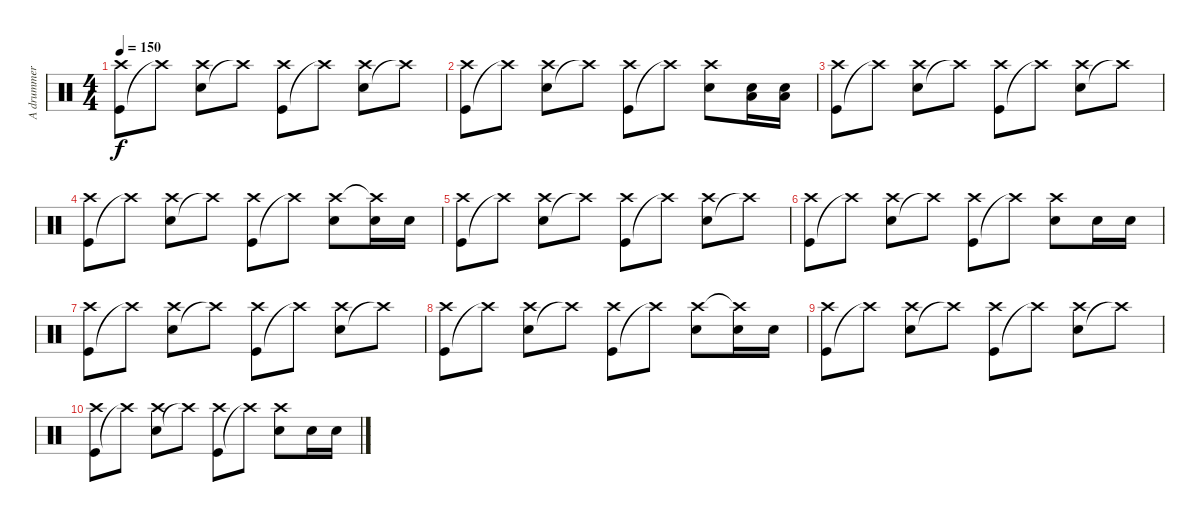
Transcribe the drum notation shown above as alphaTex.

\track ("A drummer I guess..? " "A drummer ") {instrument percussion}
\staff {score}
\articulation defaults
\ts (4 4)
\tempo 150
\clef neutral
\ks c
("Kick (hit)" "Crash high (hit)").8{dy f} "Crash high (hit)"{t}.8 ("Electric Snare (hit)" "Crash high (hit)").8 "Crash high (hit)"{t}.8 ("Kick (hit)" "Crash high (hit)").8 "Crash high (hit)"{t}.8 ("Electric Snare (hit)" "Crash high (hit)").8 "Crash high (hit)"{t}.8 |
("Kick (hit)" "Crash high (hit)").8 "Crash high (hit)"{t}.8 ("Electric Snare (hit)" "Crash high (hit)").8 "Crash high (hit)"{t}.8 ("Kick (hit)" "Crash high (hit)").8 "Crash high (hit)"{t}.8 ("Electric Snare (hit)" "Crash high (hit)").8 ("Electric Snare (hit)" "Low Floor Tom (hit)").16 ("Electric Snare (hit)" "Low Floor Tom (hit)").16 |
("Kick (hit)" "Crash high (hit)").8 "Crash high (hit)"{t}.8 ("Electric Snare (hit)" "Crash high (hit)").8 "Crash high (hit)"{t}.8 ("Kick (hit)" "Crash high (hit)").8 "Crash high (hit)"{t}.8 ("Electric Snare (hit)" "Crash high (hit)").8 "Crash high (hit)"{t}.8 |
("Kick (hit)" "Crash high (hit)").8 "Crash high (hit)"{t}.8 ("Electric Snare (hit)" "Crash high (hit)").8 "Crash high (hit)"{t}.8 ("Kick (hit)" "Crash high (hit)").8 "Crash high (hit)"{t}.8 ("Electric Snare (hit)" "Crash high (hit)").8 ("Electric Snare (hit)" "Crash high (hit)"{t}).16 "Electric Snare (hit)".16 |
("Kick (hit)" "Crash high (hit)").8 "Crash high (hit)"{t}.8 ("Electric Snare (hit)" "Crash high (hit)").8 "Crash high (hit)"{t}.8 ("Kick (hit)" "Crash high (hit)").8 "Crash high (hit)"{t}.8 ("Electric Snare (hit)" "Crash high (hit)").8 "Crash high (hit)"{t}.8 |
("Kick (hit)" "Crash high (hit)").8 "Crash high (hit)"{t}.8 ("Electric Snare (hit)" "Crash high (hit)").8 "Crash high (hit)"{t}.8 ("Kick (hit)" "Crash high (hit)").8 "Crash high (hit)"{t}.8 ("Electric Snare (hit)" "Crash high (hit)").8 "Electric Snare (hit)".16 "Electric Snare (hit)".16 |
("Kick (hit)" "Crash high (hit)").8 "Crash high (hit)"{t}.8 ("Electric Snare (hit)" "Crash high (hit)").8 "Crash high (hit)"{t}.8 ("Kick (hit)" "Crash high (hit)").8 "Crash high (hit)"{t}.8 ("Electric Snare (hit)" "Crash high (hit)").8 "Crash high (hit)"{t}.8 |
("Kick (hit)" "Crash high (hit)").8 "Crash high (hit)"{t}.8 ("Electric Snare (hit)" "Crash high (hit)").8 "Crash high (hit)"{t}.8 ("Kick (hit)" "Crash high (hit)").8 "Crash high (hit)"{t}.8 ("Electric Snare (hit)" "Crash high (hit)").8 ("Electric Snare (hit)" "Crash high (hit)"{t}).16 "Electric Snare (hit)".16 |
("Kick (hit)" "Crash high (hit)").8 "Crash high (hit)"{t}.8 ("Electric Snare (hit)" "Crash high (hit)").8 "Crash high (hit)"{t}.8 ("Kick (hit)" "Crash high (hit)").8 "Crash high (hit)"{t}.8 ("Electric Snare (hit)" "Crash high (hit)").8 "Crash high (hit)"{t}.8 |
("Kick (hit)" "Crash high (hit)").8 "Crash high (hit)"{t}.8 ("Electric Snare (hit)" "Crash high (hit)").8 "Crash high (hit)"{t}.8 ("Kick (hit)" "Crash high (hit)").8 "Crash high (hit)"{t}.8 ("Electric Snare (hit)" "Crash high (hit)").8 "Electric Snare (hit)".16 "Electric Snare (hit)".16
